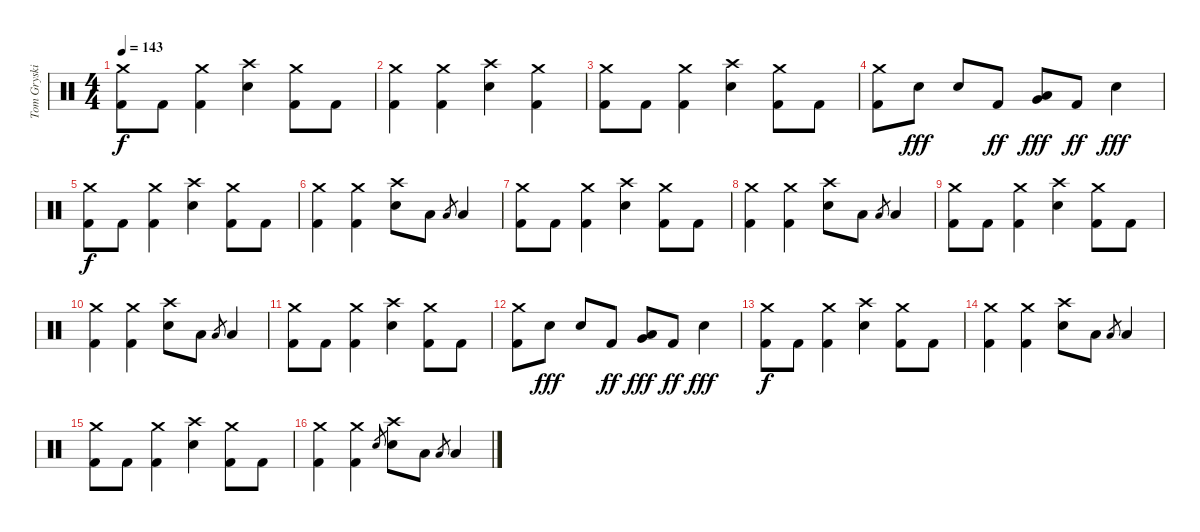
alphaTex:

\track ("Tom Gryskiewicz - Drums" "Tom Gryski") {instrument percussion}
\staff {score}
\articulation defaults
\ts (4 4)
\tempo 143
\clef neutral
\ks c
("Crash medium (hit)" "Kick (hit) 2").8{dy f} "Kick (hit) 2".8 ("Crash medium (hit)" "Kick (hit) 2").4 ("Crash high (hit)" "Electric Snare (hit)").4 ("Crash medium (hit)" "Kick (hit) 2").8 "Kick (hit) 2".8 |
("Crash medium (hit)" "Kick (hit) 2").4 ("Crash medium (hit)" "Kick (hit) 2").4 ("Crash high (hit)" "Electric Snare (hit)").4 ("Crash medium (hit)" "Kick (hit) 2").4 |
("Crash medium (hit)" "Kick (hit) 2").8 "Kick (hit) 2".8 ("Crash medium (hit)" "Kick (hit) 2").4 ("Crash high (hit)" "Electric Snare (hit)").4 ("Crash medium (hit)" "Kick (hit) 2").8 "Kick (hit) 2".8 |
("Crash medium (hit)" "Kick (hit) 2").8 "Electric Snare (hit)".8{dy fff} "Electric Snare (hit)".8 "Kick (hit) 2".8{dy ff} ("Very Low Tom (hit)" "Low Tom (hit)").8{dy fff} "Kick (hit) 2".8{dy ff} "Electric Snare (hit)".4{dy fff} |
("Crash medium (hit)" "Kick (hit) 2").8{dy f} "Kick (hit) 2".8 ("Crash medium (hit)" "Kick (hit) 2").4 ("Crash high (hit)" "Electric Snare (hit)").4 ("Crash medium (hit)" "Kick (hit) 2").8 "Kick (hit) 2".8 |
("Crash medium (hit)" "Kick (hit) 2").4 ("Crash medium (hit)" "Kick (hit) 2").4 ("Crash high (hit)" "Electric Snare (hit)").8 "Low Tom (hit)".8 "Low Tom (hit)".8{gr} "Low Tom (hit)".4 |
("Crash medium (hit)" "Kick (hit) 2").8 "Kick (hit) 2".8 ("Crash medium (hit)" "Kick (hit) 2").4 ("Crash high (hit)" "Electric Snare (hit)").4 ("Crash medium (hit)" "Kick (hit) 2").8 "Kick (hit) 2".8 |
("Crash medium (hit)" "Kick (hit) 2").4 ("Crash medium (hit)" "Kick (hit) 2").4 ("Crash high (hit)" "Electric Snare (hit)").8 "Low Tom (hit)".8 "Low Tom (hit)".8{gr} "Low Tom (hit)".4 |
("Crash medium (hit)" "Kick (hit) 2").8 "Kick (hit) 2".8 ("Crash medium (hit)" "Kick (hit) 2").4 ("Crash high (hit)" "Electric Snare (hit)").4 ("Crash medium (hit)" "Kick (hit) 2").8 "Kick (hit) 2".8 |
("Crash medium (hit)" "Kick (hit) 2").4 ("Crash medium (hit)" "Kick (hit) 2").4 ("Crash high (hit)" "Electric Snare (hit)").8 "Low Tom (hit)".8 "Low Tom (hit)".8{gr} "Low Tom (hit)".4 |
("Crash medium (hit)" "Kick (hit) 2").8 "Kick (hit) 2".8 ("Crash medium (hit)" "Kick (hit) 2").4 ("Crash high (hit)" "Electric Snare (hit)").4 ("Crash medium (hit)" "Kick (hit) 2").8 "Kick (hit) 2".8 |
("Crash medium (hit)" "Kick (hit) 2").8 "Electric Snare (hit)".8{dy fff} "Electric Snare (hit)".8 "Kick (hit) 2".8{dy ff} ("Very Low Tom (hit)" "Low Tom (hit)").8{dy fff} "Kick (hit) 2".8{dy ff} "Electric Snare (hit)".4{dy fff} |
("Crash medium (hit)" "Kick (hit) 2").8{dy f} "Kick (hit) 2".8 ("Crash medium (hit)" "Kick (hit) 2").4 ("Crash high (hit)" "Electric Snare (hit)").4 ("Crash medium (hit)" "Kick (hit) 2").8 "Kick (hit) 2".8 |
("Crash medium (hit)" "Kick (hit) 2").4 ("Crash medium (hit)" "Kick (hit) 2").4 ("Crash high (hit)" "Electric Snare (hit)").8 "Low Tom (hit)".8 "Low Tom (hit)".8{gr} "Low Tom (hit)".4 |
("Crash medium (hit)" "Kick (hit) 2").8 "Kick (hit) 2".8 ("Crash medium (hit)" "Kick (hit) 2").4 ("Crash high (hit)" "Electric Snare (hit)").4 ("Crash medium (hit)" "Kick (hit) 2").8 "Kick (hit) 2".8 |
("Crash medium (hit)" "Kick (hit) 2").4 ("Crash medium (hit)" "Kick (hit) 2").4 "Electric Snare (hit)".8{gr} ("Crash high (hit)" "Electric Snare (hit)").8 "Low Tom (hit)".8 "Low Tom (hit)".8{gr} "Low Tom (hit)".4
